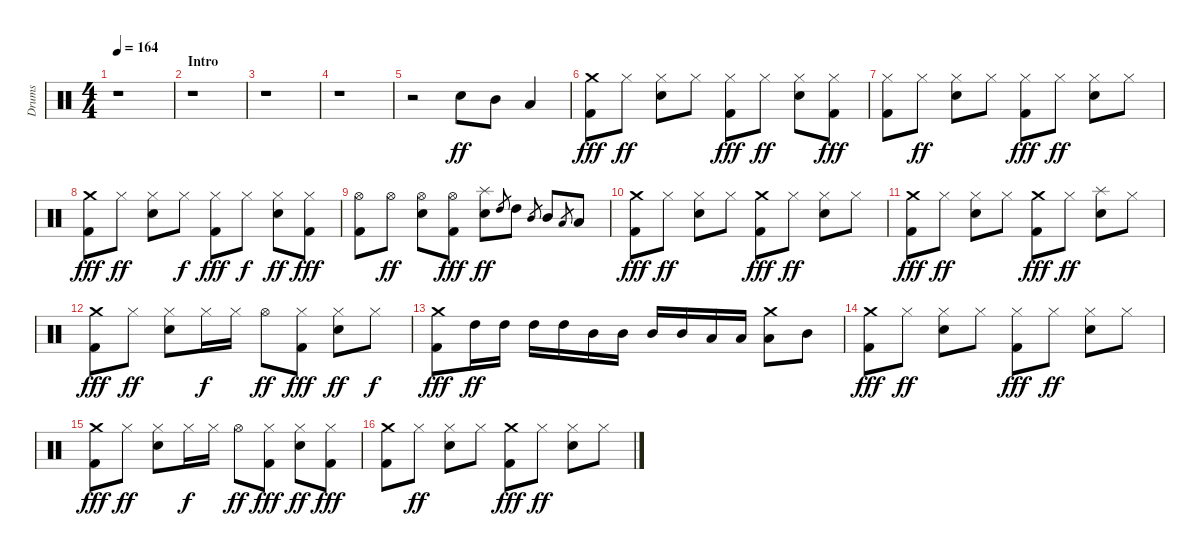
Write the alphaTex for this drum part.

\track ("Drums" "Drums") {instrument percussion}
\staff {score}
\articulation defaults
\ts (4 4)
\tempo 164
\tempo 120
\tempo 164
\clef neutral
\ks c
r.1{dy ff} |
\section ("" "Intro")
r.1 |
r.1 |
r.1 |
r.2 "Snare (hit) 2".8 "Mid Tom (hit)".8 "Low Tom (hit)".4 |
("Crash medium (hit)" "Kick (hit) 2").8{dy fff} "Hi-Hat (closed)".8{dy ff} ("Hi-Hat (closed)" "Snare (hit) 2").8 "Hi-Hat (closed)".8 ("Hi-Hat (closed)" "Kick (hit) 2").8{dy fff} "Hi-Hat (closed)".8{dy ff} ("Hi-Hat (closed)" "Snare (hit) 2").8 ("Hi-Hat (closed)" "Kick (hit) 2").8{dy fff} |
("Hi-Hat (closed)" "Kick (hit) 2").8 "Hi-Hat (closed)".8{dy ff} ("Hi-Hat (closed)" "Snare (hit) 2").8 "Hi-Hat (closed)".8 ("Hi-Hat (closed)" "Kick (hit) 2").8{dy fff} "Hi-Hat (closed)".8{dy ff} ("Hi-Hat (closed)" "Snare (hit) 2").8 "Hi-Hat (closed)".8 |
("Crash medium (hit)" "Kick (hit) 2").8{dy fff} "Hi-Hat (closed)".8{dy ff} ("Hi-Hat (closed)" "Snare (hit) 2").8 "Hi-Hat (closed)".8{dy f} ("Hi-Hat (closed)" "Kick (hit) 2").8{dy fff} "Hi-Hat (closed)".8{dy f} ("Hi-Hat (closed)" "Snare (hit) 2").8{dy ff} ("Hi-Hat (closed)" "Kick (hit) 2").8{dy fff} |
("Hi-Hat (open)" "Kick (hit) 2").8 "Hi-Hat (open)".8{dy ff} ("Hi-Hat (open)" "Snare (hit) 2").8 ("Hi-Hat (open)" "Kick (hit) 2").8{dy fff} ("Splash (hit)" "Snare (hit) 2").8{dy ff} "High Tom (hit)".8{gr} "High Tom (hit)".8 "Mid Tom (hit)".8{gr} "Mid Tom (hit)".8 "Low Tom (hit)".8{gr} "Low Tom (hit)".8 |
("Crash medium (hit)" "Kick (hit) 2").8{dy fff} "Hi-Hat (closed)".8{dy ff} ("Hi-Hat (closed)" "Snare (hit) 2").8 "Hi-Hat (closed)".8 ("Crash medium (hit)" "Kick (hit) 2").8{dy fff} "Hi-Hat (closed)".8{dy ff} ("Hi-Hat (closed)" "Snare (hit) 2").8 "Hi-Hat (closed)".8 |
("Crash medium (hit)" "Kick (hit) 2").8{dy fff} "Hi-Hat (closed)".8{dy ff} ("Hi-Hat (closed)" "Snare (hit) 2").8 "Hi-Hat (closed)".8 ("Crash medium (hit)" "Kick (hit) 2").8{dy fff} "Hi-Hat (closed)".8{dy ff} ("Splash (hit)" "Snare (hit) 2").8 "Hi-Hat (closed)".8 |
("Crash medium (hit)" "Kick (hit) 2").8{dy fff} "Hi-Hat (closed)".8{dy ff} ("Hi-Hat (closed)" "Snare (hit) 2").8 "Hi-Hat (closed)".16{dy f} "Hi-Hat (closed)".16 "Hi-Hat (open)".8{dy ff} ("Hi-Hat (closed)" "Kick (hit) 2").8{dy fff} ("Hi-Hat (closed)" "Snare (hit) 2").8{dy ff} "Hi-Hat (closed)".8{dy f} |
("Crash medium (hit)" "Kick (hit) 2").8{dy fff} "High Tom (hit)".16{dy ff} "High Tom (hit)".16 "High Tom (hit)".16 "High Tom (hit)".16 "Mid Tom (hit)".16 "Mid Tom (hit)".16 "Mid Tom (hit)".16 "Mid Tom (hit)".16 "Low Tom (hit)".16 "Low Tom (hit)".16 ("Crash medium (hit)" "Low Tom (hit)").8 "Mid Tom (hit)".8 |
("Crash medium (hit)" "Kick (hit) 2").8{dy fff} "Hi-Hat (closed)".8{dy ff} ("Hi-Hat (closed)" "Snare (hit) 2").8 "Hi-Hat (closed)".8 ("Hi-Hat (closed)" "Kick (hit) 2").8{dy fff} "Hi-Hat (closed)".8{dy ff} ("Hi-Hat (closed)" "Snare (hit) 2").8 "Hi-Hat (closed)".8 |
("Crash medium (hit)" "Kick (hit) 2").8{dy fff} "Hi-Hat (closed)".8{dy ff} ("Hi-Hat (closed)" "Snare (hit) 2").8 "Hi-Hat (closed)".16{dy f} "Hi-Hat (closed)".16 "Hi-Hat (open)".8{dy ff} ("Hi-Hat (closed)" "Kick (hit) 2").8{dy fff} ("Hi-Hat (closed)" "Snare (hit) 2").8{dy ff} ("Hi-Hat (closed)" "Kick (hit) 2").8{dy fff} |
("Crash medium (hit)" "Kick (hit) 2").8 "Hi-Hat (closed)".8{dy ff} ("Hi-Hat (closed)" "Snare (hit) 2").8 "Hi-Hat (closed)".8 ("Crash medium (hit)" "Kick (hit) 2").8{dy fff} "Hi-Hat (closed)".8{dy ff} ("Hi-Hat (closed)" "Snare (hit) 2").8 "Hi-Hat (closed)".8
